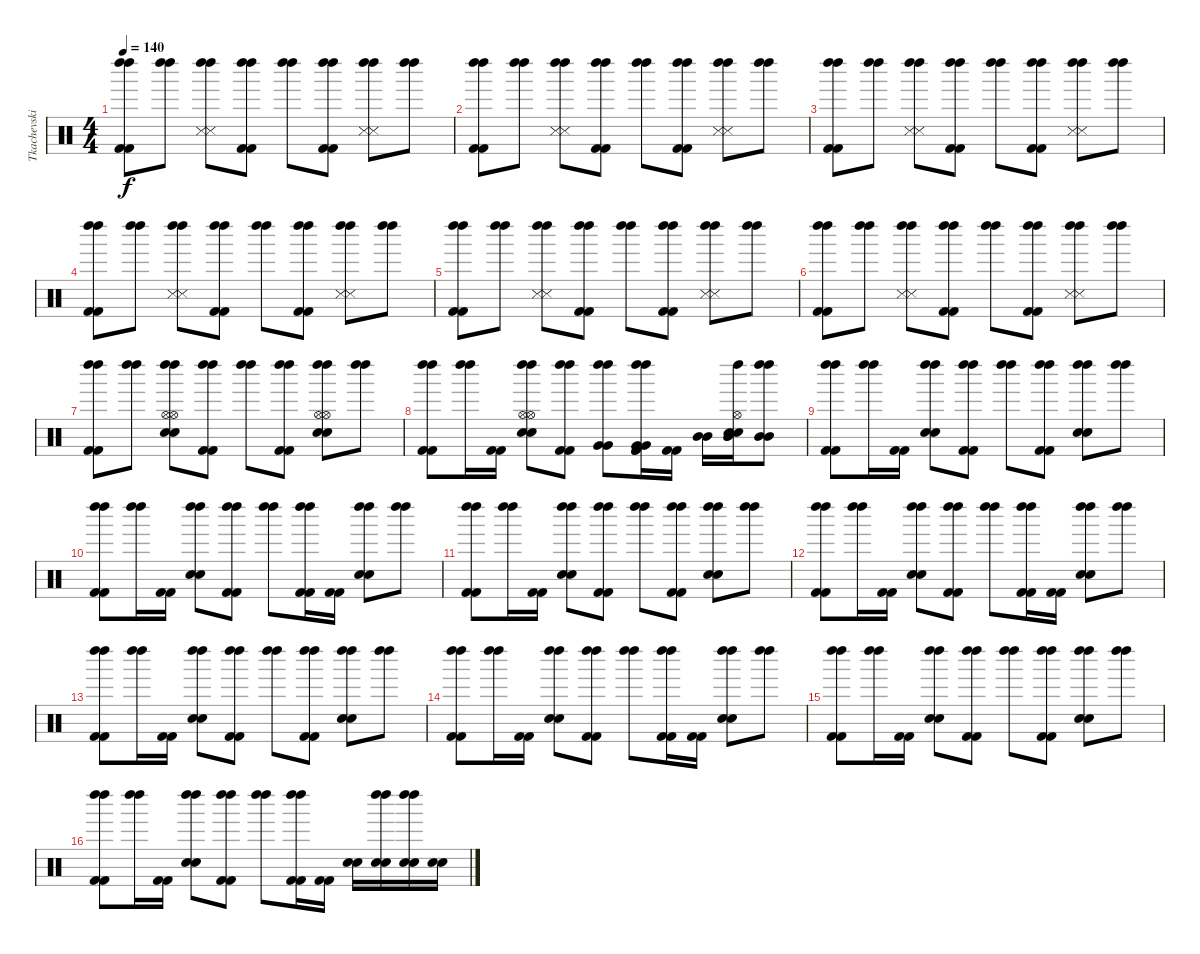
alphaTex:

\track ("Tkachevskiy A" "Tkachevski") {instrument percussion}
\staff {score}
\articulation defaults
\ts (4 4)
\tempo 140
\clef neutral
\ks c
("Kick (hit) 2" "Left Maraca (hit)" "Kick (hit) 2" "Left Maraca (hit)").8{dy f} ("Left Maraca (hit)" "Left Maraca (hit)").8 ("Snare (side stick) 3" "Left Maraca (hit)" "Snare (side stick) 3" "Left Maraca (hit)").8 ("Kick (hit) 2" "Left Maraca (hit)" "Kick (hit) 2" "Left Maraca (hit)").8 ("Left Maraca (hit)" "Left Maraca (hit)").8 ("Kick (hit) 2" "Left Maraca (hit)" "Kick (hit) 2" "Left Maraca (hit)").8 ("Snare (side stick) 3" "Left Maraca (hit)" "Snare (side stick) 3" "Left Maraca (hit)").8 ("Left Maraca (hit)" "Left Maraca (hit)").8 |
("Kick (hit) 2" "Left Maraca (hit)" "Kick (hit) 2" "Left Maraca (hit)").8 ("Left Maraca (hit)" "Left Maraca (hit)").8 ("Snare (side stick) 3" "Left Maraca (hit)" "Snare (side stick) 3" "Left Maraca (hit)").8 ("Kick (hit) 2" "Left Maraca (hit)" "Kick (hit) 2" "Left Maraca (hit)").8 ("Left Maraca (hit)" "Left Maraca (hit)").8 ("Kick (hit) 2" "Left Maraca (hit)" "Kick (hit) 2" "Left Maraca (hit)").8 ("Snare (side stick) 3" "Left Maraca (hit)" "Snare (side stick) 3" "Left Maraca (hit)").8 ("Left Maraca (hit)" "Left Maraca (hit)").8 |
("Kick (hit) 2" "Left Maraca (hit)" "Kick (hit) 2" "Left Maraca (hit)").8 ("Left Maraca (hit)" "Left Maraca (hit)").8 ("Snare (side stick) 3" "Left Maraca (hit)" "Snare (side stick) 3" "Left Maraca (hit)").8 ("Kick (hit) 2" "Left Maraca (hit)" "Kick (hit) 2" "Left Maraca (hit)").8 ("Left Maraca (hit)" "Left Maraca (hit)").8 ("Kick (hit) 2" "Left Maraca (hit)" "Kick (hit) 2" "Left Maraca (hit)").8 ("Snare (side stick) 3" "Left Maraca (hit)" "Snare (side stick) 3" "Left Maraca (hit)").8 ("Left Maraca (hit)" "Left Maraca (hit)").8 |
("Kick (hit) 2" "Left Maraca (hit)" "Kick (hit) 2" "Left Maraca (hit)").8 ("Left Maraca (hit)" "Left Maraca (hit)").8 ("Snare (side stick) 3" "Left Maraca (hit)" "Snare (side stick) 3" "Left Maraca (hit)").8 ("Kick (hit) 2" "Left Maraca (hit)" "Kick (hit) 2" "Left Maraca (hit)").8 ("Left Maraca (hit)" "Left Maraca (hit)").8 ("Kick (hit) 2" "Left Maraca (hit)" "Kick (hit) 2" "Left Maraca (hit)").8 ("Snare (side stick) 3" "Left Maraca (hit)" "Snare (side stick) 3" "Left Maraca (hit)").8 ("Left Maraca (hit)" "Left Maraca (hit)").8 |
("Kick (hit) 2" "Left Maraca (hit)" "Kick (hit) 2" "Left Maraca (hit)").8 ("Left Maraca (hit)" "Left Maraca (hit)").8 ("Snare (side stick) 3" "Left Maraca (hit)" "Snare (side stick) 3" "Left Maraca (hit)").8 ("Kick (hit) 2" "Left Maraca (hit)" "Kick (hit) 2" "Left Maraca (hit)").8 ("Left Maraca (hit)" "Left Maraca (hit)").8 ("Kick (hit) 2" "Left Maraca (hit)" "Kick (hit) 2" "Left Maraca (hit)").8 ("Snare (side stick) 3" "Left Maraca (hit)" "Snare (side stick) 3" "Left Maraca (hit)").8 ("Left Maraca (hit)" "Left Maraca (hit)").8 |
("Kick (hit) 2" "Left Maraca (hit)" "Kick (hit) 2" "Left Maraca (hit)").8 ("Left Maraca (hit)" "Left Maraca (hit)").8 ("Snare (side stick) 3" "Left Maraca (hit)" "Snare (side stick) 3" "Left Maraca (hit)").8 ("Kick (hit) 2" "Left Maraca (hit)" "Kick (hit) 2" "Left Maraca (hit)").8 ("Left Maraca (hit)" "Left Maraca (hit)").8 ("Kick (hit) 2" "Left Maraca (hit)" "Kick (hit) 2" "Left Maraca (hit)").8 ("Snare (side stick) 3" "Left Maraca (hit)" "Snare (side stick) 3" "Left Maraca (hit)").8 ("Left Maraca (hit)" "Left Maraca (hit)").8 |
("Kick (hit) 2" "Left Maraca (hit)" "Kick (hit) 2" "Left Maraca (hit)").8 ("Left Maraca (hit)" "Left Maraca (hit)").8 ("Snare (hit) 2" "Hi-Hat (open)" "Left Maraca (hit)" "Snare (hit) 2" "Hi-Hat (open)" "Left Maraca (hit)").8 ("Kick (hit) 2" "Left Maraca (hit)" "Kick (hit) 2" "Left Maraca (hit)").8 ("Left Maraca (hit)" "Left Maraca (hit)").8 ("Kick (hit) 2" "Left Maraca (hit)" "Kick (hit) 2" "Left Maraca (hit)").8 ("Snare (hit) 2" "Hi-Hat (open)" "Left Maraca (hit)" "Snare (hit) 2" "Hi-Hat (open)" "Left Maraca (hit)").8 ("Left Maraca (hit)" "Left Maraca (hit)").8 |
("Kick (hit) 2" "Left Maraca (hit)" "Kick (hit) 2" "Left Maraca (hit)").8 ("Left Maraca (hit)" "Left Maraca (hit)").16 ("Kick (hit) 2" "Kick (hit) 2").16 ("Snare (hit) 2" "Hi-Hat (open)" "Left Maraca (hit)" "Snare (hit) 2" "Hi-Hat (open)" "Left Maraca (hit)").8 ("Kick (hit) 2" "Left Maraca (hit)" "Kick (hit) 2" "Left Maraca (hit)").8 ("Very Low Tom (hit)" "Left Maraca (hit)" "Very Low Tom (hit)" "Left Maraca (hit)").8 ("Kick (hit) 2" "Very Low Tom (hit)" "Left Maraca (hit)" "Kick (hit) 2" "Very Low Tom (hit)" "Left Maraca (hit)").16 ("Kick (hit) 2" "Kick (hit) 2").16 ("Mid Tom (hit)" "Mid Tom (hit)").16 ("Snare (hit) 2" "Mid Tom (hit)" "Hi-Hat (open)" "Left Maraca (hit)" "Snare (hit) 2" "Mid Tom (hit)").16 ("Mid Tom (hit)" "Left Maraca (hit)" "Mid Tom (hit)" "Left Maraca (hit)").8 |
("Kick (hit) 2" "Left Maraca (hit)" "Kick (hit) 2" "Left Maraca (hit)").8 ("Left Maraca (hit)" "Left Maraca (hit)").16 ("Kick (hit) 2" "Kick (hit) 2").16 ("Snare (hit) 2" "Left Maraca (hit)" "Snare (hit) 2" "Left Maraca (hit)").8 ("Kick (hit) 2" "Left Maraca (hit)" "Kick (hit) 2" "Left Maraca (hit)").8 ("Left Maraca (hit)" "Left Maraca (hit)").8 ("Kick (hit) 2" "Left Maraca (hit)" "Kick (hit) 2" "Left Maraca (hit)").8 ("Snare (hit) 2" "Left Maraca (hit)" "Snare (hit) 2" "Left Maraca (hit)").8 ("Left Maraca (hit)" "Left Maraca (hit)").8 |
("Kick (hit) 2" "Left Maraca (hit)" "Kick (hit) 2" "Left Maraca (hit)").8 ("Left Maraca (hit)" "Left Maraca (hit)").16 ("Kick (hit) 2" "Kick (hit) 2").16 ("Snare (hit) 2" "Left Maraca (hit)" "Snare (hit) 2" "Left Maraca (hit)").8 ("Kick (hit) 2" "Left Maraca (hit)" "Kick (hit) 2" "Left Maraca (hit)").8 ("Left Maraca (hit)" "Left Maraca (hit)").8 ("Kick (hit) 2" "Left Maraca (hit)" "Kick (hit) 2" "Left Maraca (hit)").16 ("Kick (hit) 2" "Kick (hit) 2").16 ("Snare (hit) 2" "Left Maraca (hit)" "Snare (hit) 2" "Left Maraca (hit)").8 ("Left Maraca (hit)" "Left Maraca (hit)").8 |
("Kick (hit) 2" "Left Maraca (hit)" "Kick (hit) 2" "Left Maraca (hit)").8 ("Left Maraca (hit)" "Left Maraca (hit)").16 ("Kick (hit) 2" "Kick (hit) 2").16 ("Snare (hit) 2" "Left Maraca (hit)" "Snare (hit) 2" "Left Maraca (hit)").8 ("Kick (hit) 2" "Left Maraca (hit)" "Kick (hit) 2" "Left Maraca (hit)").8 ("Left Maraca (hit)" "Left Maraca (hit)").8 ("Kick (hit) 2" "Left Maraca (hit)" "Kick (hit) 2" "Left Maraca (hit)").8 ("Snare (hit) 2" "Left Maraca (hit)" "Snare (hit) 2" "Left Maraca (hit)").8 ("Left Maraca (hit)" "Left Maraca (hit)").8 |
("Kick (hit) 2" "Left Maraca (hit)" "Kick (hit) 2" "Left Maraca (hit)").8 ("Left Maraca (hit)" "Left Maraca (hit)").16 ("Kick (hit) 2" "Kick (hit) 2").16 ("Snare (hit) 2" "Left Maraca (hit)" "Snare (hit) 2" "Left Maraca (hit)").8 ("Kick (hit) 2" "Left Maraca (hit)" "Kick (hit) 2" "Left Maraca (hit)").8 ("Left Maraca (hit)" "Left Maraca (hit)").8 ("Kick (hit) 2" "Left Maraca (hit)" "Kick (hit) 2" "Left Maraca (hit)").16 ("Kick (hit) 2" "Kick (hit) 2").16 ("Snare (hit) 2" "Left Maraca (hit)" "Snare (hit) 2" "Left Maraca (hit)").8 ("Left Maraca (hit)" "Left Maraca (hit)").8 |
("Kick (hit) 2" "Left Maraca (hit)" "Kick (hit) 2" "Left Maraca (hit)").8 ("Left Maraca (hit)" "Left Maraca (hit)").16 ("Kick (hit) 2" "Kick (hit) 2").16 ("Snare (hit) 2" "Left Maraca (hit)" "Snare (hit) 2" "Left Maraca (hit)").8 ("Kick (hit) 2" "Left Maraca (hit)" "Kick (hit) 2" "Left Maraca (hit)").8 ("Left Maraca (hit)" "Left Maraca (hit)").8 ("Kick (hit) 2" "Left Maraca (hit)" "Kick (hit) 2" "Left Maraca (hit)").8 ("Snare (hit) 2" "Left Maraca (hit)" "Snare (hit) 2" "Left Maraca (hit)").8 ("Left Maraca (hit)" "Left Maraca (hit)").8 |
("Kick (hit) 2" "Left Maraca (hit)" "Kick (hit) 2" "Left Maraca (hit)").8 ("Left Maraca (hit)" "Left Maraca (hit)").16 ("Kick (hit) 2" "Kick (hit) 2").16 ("Snare (hit) 2" "Left Maraca (hit)" "Snare (hit) 2" "Left Maraca (hit)").8 ("Kick (hit) 2" "Left Maraca (hit)" "Kick (hit) 2" "Left Maraca (hit)").8 ("Left Maraca (hit)" "Left Maraca (hit)").8 ("Kick (hit) 2" "Left Maraca (hit)" "Kick (hit) 2" "Left Maraca (hit)").16 ("Kick (hit) 2" "Kick (hit) 2").16 ("Snare (hit) 2" "Left Maraca (hit)" "Snare (hit) 2" "Left Maraca (hit)").8 ("Left Maraca (hit)" "Left Maraca (hit)").8 |
("Kick (hit) 2" "Left Maraca (hit)" "Kick (hit) 2" "Left Maraca (hit)").8 ("Left Maraca (hit)" "Left Maraca (hit)").16 ("Kick (hit) 2" "Kick (hit) 2").16 ("Snare (hit) 2" "Left Maraca (hit)" "Snare (hit) 2" "Left Maraca (hit)").8 ("Kick (hit) 2" "Left Maraca (hit)" "Kick (hit) 2" "Left Maraca (hit)").8 ("Left Maraca (hit)" "Left Maraca (hit)").8 ("Kick (hit) 2" "Left Maraca (hit)" "Kick (hit) 2" "Left Maraca (hit)").8 ("Snare (hit) 2" "Left Maraca (hit)" "Snare (hit) 2" "Left Maraca (hit)").8 ("Left Maraca (hit)" "Left Maraca (hit)").8 |
("Kick (hit) 2" "Left Maraca (hit)" "Kick (hit) 2" "Left Maraca (hit)").8 ("Left Maraca (hit)" "Left Maraca (hit)").16 ("Kick (hit) 2" "Kick (hit) 2").16 ("Snare (hit) 2" "Left Maraca (hit)" "Snare (hit) 2" "Left Maraca (hit)").8 ("Kick (hit) 2" "Left Maraca (hit)" "Kick (hit) 2" "Left Maraca (hit)").8 ("Left Maraca (hit)" "Left Maraca (hit)").8 ("Kick (hit) 2" "Left Maraca (hit)" "Kick (hit) 2" "Left Maraca (hit)").16 ("Kick (hit) 2" "Kick (hit) 2").16 ("Snare (hit) 2" "Snare (hit) 2").16 ("Snare (hit) 2" "Left Maraca (hit)" "Snare (hit) 2" "Left Maraca (hit)").16 ("Snare (hit) 2" "Left Maraca (hit)" "Snare (hit) 2" "Left Maraca (hit)").16 ("Snare (hit) 2" "Snare (hit) 2").16
